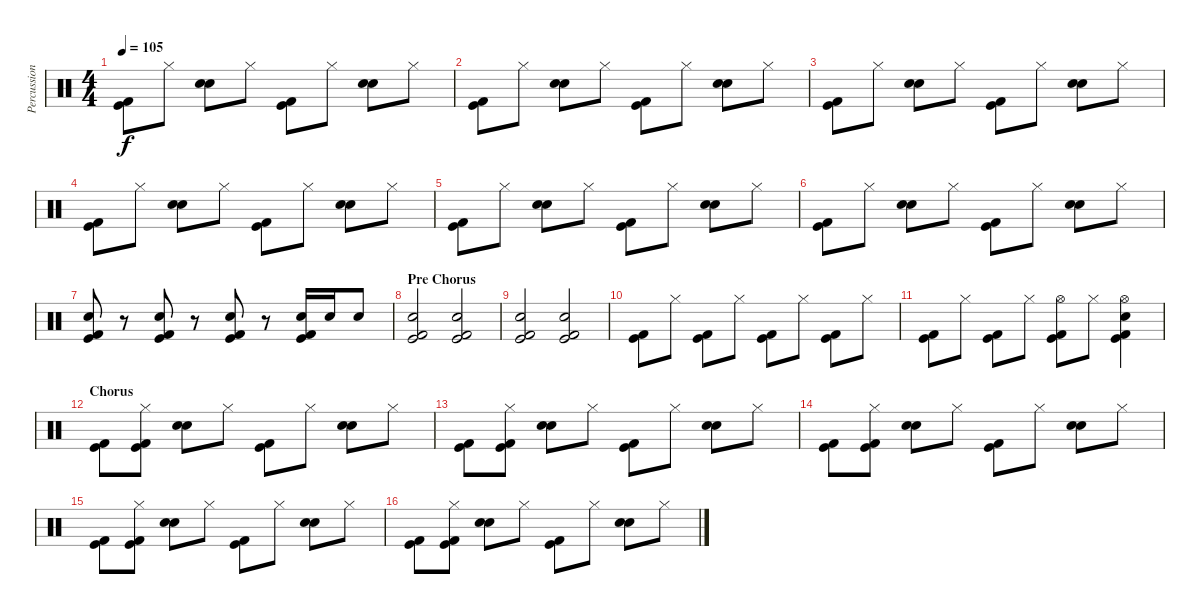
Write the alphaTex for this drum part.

\track ("Percussion" "Percussion") {instrument percussion}
\staff {score}
\articulation defaults
\ts (4 4)
\tempo 105
\clef neutral
\ks c
("Kick (hit) 2" "Kick (hit)").8{dy f} "Hi-Hat (closed)".8 ("Hand Clap (hit)" "Electric Snare (hit)").8 "Hi-Hat (closed)".8 ("Kick (hit) 2" "Kick (hit)").8 "Hi-Hat (closed)".8 ("Hand Clap (hit)" "Electric Snare (hit)").8 "Hi-Hat (closed)".8 |
("Kick (hit) 2" "Kick (hit)").8 "Hi-Hat (closed)".8 ("Hand Clap (hit)" "Electric Snare (hit)").8 "Hi-Hat (closed)".8 ("Kick (hit) 2" "Kick (hit)").8 "Hi-Hat (closed)".8 ("Hand Clap (hit)" "Electric Snare (hit)").8 "Hi-Hat (closed)".8 |
("Kick (hit) 2" "Kick (hit)").8 "Hi-Hat (closed)".8 ("Hand Clap (hit)" "Electric Snare (hit)").8 "Hi-Hat (closed)".8 ("Kick (hit) 2" "Kick (hit)").8 "Hi-Hat (closed)".8 ("Hand Clap (hit)" "Electric Snare (hit)").8 "Hi-Hat (closed)".8 |
("Kick (hit) 2" "Kick (hit)").8 "Hi-Hat (closed)".8 ("Hand Clap (hit)" "Electric Snare (hit)").8 "Hi-Hat (closed)".8 ("Kick (hit) 2" "Kick (hit)").8 "Hi-Hat (closed)".8 ("Hand Clap (hit)" "Electric Snare (hit)").8 "Hi-Hat (closed)".8 |
("Kick (hit) 2" "Kick (hit)").8 "Hi-Hat (closed)".8 ("Hand Clap (hit)" "Electric Snare (hit)").8 "Hi-Hat (closed)".8 ("Kick (hit) 2" "Kick (hit)").8 "Hi-Hat (closed)".8 ("Hand Clap (hit)" "Electric Snare (hit)").8 "Hi-Hat (closed)".8 |
("Kick (hit) 2" "Kick (hit)").8 "Hi-Hat (closed)".8 ("Hand Clap (hit)" "Electric Snare (hit)").8 "Hi-Hat (closed)".8 ("Kick (hit) 2" "Kick (hit)").8 "Hi-Hat (closed)".8 ("Hand Clap (hit)" "Electric Snare (hit)").8 "Hi-Hat (closed)".8 |
("Electric Snare (hit)" "Kick (hit) 2" "Kick (hit)").8 r.8 ("Electric Snare (hit)" "Kick (hit) 2" "Kick (hit)").8 r.8 ("Electric Snare (hit)" "Kick (hit) 2" "Kick (hit)").8 r.8 ("Snare (hit) 2" "Kick (hit) 2" "Kick (hit)").16 "Snare (hit) 2".16 "Snare (hit) 2".8 |
\section ("" "Pre Chorus")
("Electric Snare (hit)" "Kick (hit) 2" "Kick (hit)").2 ("Electric Snare (hit)" "Kick (hit) 2" "Kick (hit)").2 |
("Electric Snare (hit)" "Kick (hit) 2" "Kick (hit)").2 ("Electric Snare (hit)" "Kick (hit) 2" "Kick (hit)").2 |
("Kick (hit) 2" "Kick (hit)").8 "Hi-Hat (closed)".8 ("Kick (hit) 2" "Kick (hit)").8 "Hi-Hat (closed)".8 ("Kick (hit) 2" "Kick (hit)").8 "Hi-Hat (closed)".8 ("Kick (hit) 2" "Kick (hit)").8 "Hi-Hat (closed)".8 |
("Kick (hit) 2" "Kick (hit)").8 "Hi-Hat (closed)".8 ("Kick (hit)" "Kick (hit) 2").8 "Hi-Hat (closed)".8 ("Hi-Hat (open)" "Kick (hit) 2" "Kick (hit)").8 "Hi-Hat (closed)".8 ("Electric Snare (hit)" "Hi-Hat (open)" "Kick (hit) 2" "Kick (hit)").4 |
\section ("" "Chorus")
("Kick (hit) 2" "Kick (hit)").8 ("Hi-Hat (closed)" "Kick (hit) 2" "Kick (hit)").8 ("Hand Clap (hit)" "Electric Snare (hit)").8 "Hi-Hat (closed)".8 ("Kick (hit) 2" "Kick (hit)").8 "Hi-Hat (closed)".8 ("Hand Clap (hit)" "Electric Snare (hit)").8 "Hi-Hat (closed)".8 |
("Kick (hit) 2" "Kick (hit)").8 ("Hi-Hat (closed)" "Kick (hit) 2" "Kick (hit)").8 ("Hand Clap (hit)" "Electric Snare (hit)").8 "Hi-Hat (closed)".8 ("Kick (hit) 2" "Kick (hit)").8 "Hi-Hat (closed)".8 ("Hand Clap (hit)" "Electric Snare (hit)").8 "Hi-Hat (closed)".8 |
("Kick (hit) 2" "Kick (hit)").8 ("Hi-Hat (closed)" "Kick (hit) 2" "Kick (hit)").8 ("Hand Clap (hit)" "Electric Snare (hit)").8 "Hi-Hat (closed)".8 ("Kick (hit) 2" "Kick (hit)").8 "Hi-Hat (closed)".8 ("Hand Clap (hit)" "Electric Snare (hit)").8 "Hi-Hat (closed)".8 |
("Kick (hit) 2" "Kick (hit)").8 ("Hi-Hat (closed)" "Kick (hit) 2" "Kick (hit)").8 ("Hand Clap (hit)" "Electric Snare (hit)").8 "Hi-Hat (closed)".8 ("Kick (hit) 2" "Kick (hit)").8 "Hi-Hat (closed)".8 ("Hand Clap (hit)" "Electric Snare (hit)").8 "Hi-Hat (closed)".8 |
("Kick (hit) 2" "Kick (hit)").8 ("Hi-Hat (closed)" "Kick (hit) 2" "Kick (hit)").8 ("Hand Clap (hit)" "Electric Snare (hit)").8 "Hi-Hat (closed)".8 ("Kick (hit) 2" "Kick (hit)").8 "Hi-Hat (closed)".8 ("Hand Clap (hit)" "Electric Snare (hit)").8 "Hi-Hat (closed)".8
